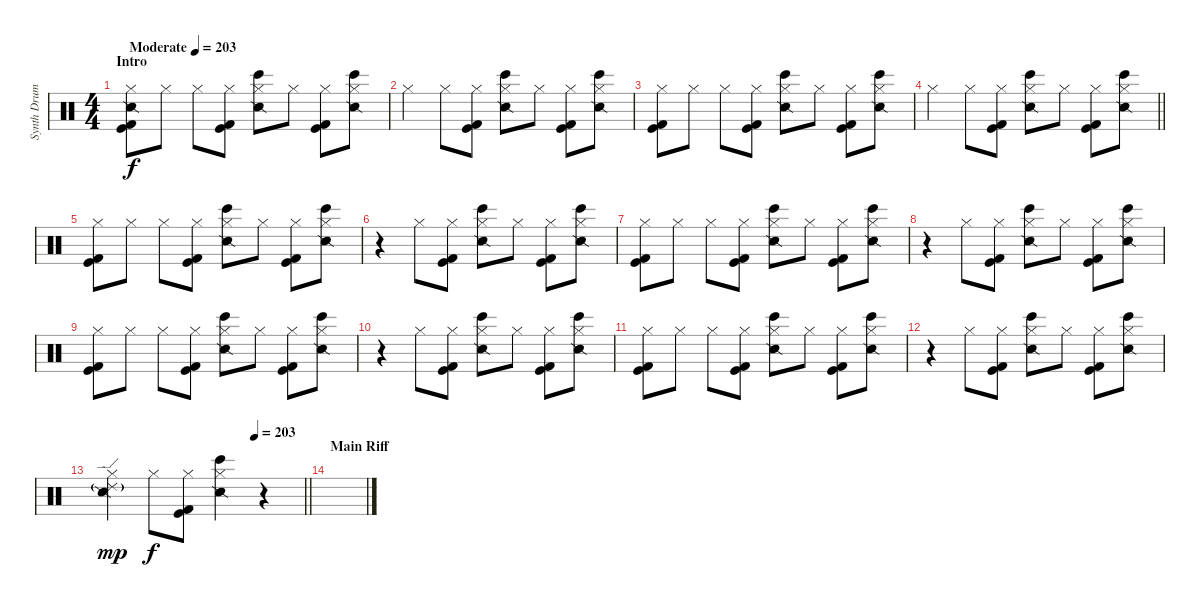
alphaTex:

\track ("Synth Drums" "Synth Drum") {instrument percussion}
\staff {score}
\articulation defaults
\ts (4 4)
\section ("" "Intro")
\tempo (203 "Moderate")
\tempo 100
\tempo (203 "Moderate")
\clef neutral
\ks c
("Hi-Hat (closed)" "Snare (side stick) 2" "Kick (hit) 2" "Kick (hit)").8{dy f} "Hi-Hat (closed)".8 "Hi-Hat (closed)".8 ("Hi-Hat (closed)" "Kick (hit) 2" "Kick (hit)").8 ("Hi-Hat (closed)" "Bongo High (hit)" "Snare (side stick) 2").8 "Hi-Hat (closed)".8 ("Hi-Hat (closed)" "Kick (hit) 2" "Kick (hit)").8 ("Hi-Hat (closed)" "Bongo High (hit)" "Snare (side stick) 2").8 |
"Hi-Hat (closed)".4 "Hi-Hat (closed)".8 ("Hi-Hat (closed)" "Kick (hit) 2" "Kick (hit)").8 ("Hi-Hat (closed)" "Bongo High (hit)" "Snare (side stick) 2").8 "Hi-Hat (closed)".8 ("Hi-Hat (closed)" "Kick (hit) 2" "Kick (hit)").8 ("Hi-Hat (closed)" "Bongo High (hit)" "Snare (side stick) 2").8 |
("Hi-Hat (closed)" "Kick (hit) 2" "Kick (hit)").8 "Hi-Hat (closed)".8 "Hi-Hat (closed)".8 ("Hi-Hat (closed)" "Kick (hit) 2" "Kick (hit)").8 ("Hi-Hat (closed)" "Bongo High (hit)" "Snare (side stick) 2").8 "Hi-Hat (closed)".8 ("Hi-Hat (closed)" "Kick (hit) 2" "Kick (hit)").8 ("Hi-Hat (closed)" "Bongo High (hit)" "Snare (side stick) 2").8 |
\barLineRight lightlight "Hi-Hat (closed)".4 "Hi-Hat (closed)".8
("Hi-Hat (closed)" "Kick (hit) 2" "Kick (hit)").8 ("Hi-Hat (closed)" "Bongo High (hit)" "Snare (side stick) 2").8 "Hi-Hat (closed)".8 ("Hi-Hat (closed)" "Kick (hit) 2" "Kick (hit)").8 ("Hi-Hat (closed)" "Bongo High (hit)" "Snare (side stick) 2").8 |
\section ("" "")
("Hi-Hat (closed)" "Kick (hit) 2" "Kick (hit)").8 "Hi-Hat (closed)".8 "Hi-Hat (closed)".8 ("Hi-Hat (closed)" "Kick (hit) 2" "Kick (hit)").8 ("Hi-Hat (closed)" "Bongo High (hit)" "Snare (side stick) 2").8 "Hi-Hat (closed)".8 ("Hi-Hat (closed)" "Kick (hit) 2" "Kick (hit)").8 ("Hi-Hat (closed)" "Bongo High (hit)" "Snare (side stick) 2").8 |
r.4 "Hi-Hat (closed)".8 ("Hi-Hat (closed)" "Kick (hit) 2" "Kick (hit)").8 ("Hi-Hat (closed)" "Bongo High (hit)" "Snare (side stick) 2").8 "Hi-Hat (closed)".8 ("Hi-Hat (closed)" "Kick (hit) 2" "Kick (hit)").8 ("Hi-Hat (closed)" "Bongo High (hit)" "Snare (side stick) 2").8 |
("Hi-Hat (closed)" "Kick (hit) 2" "Kick (hit)").8 "Hi-Hat (closed)".8 "Hi-Hat (closed)".8 ("Hi-Hat (closed)" "Kick (hit) 2" "Kick (hit)").8 ("Hi-Hat (closed)" "Bongo High (hit)" "Snare (side stick) 2").8 "Hi-Hat (closed)".8 ("Hi-Hat (closed)" "Kick (hit) 2" "Kick (hit)").8 ("Hi-Hat (closed)" "Bongo High (hit)" "Snare (side stick) 2").8 |
r.4 "Hi-Hat (closed)".8 ("Hi-Hat (closed)" "Kick (hit) 2" "Kick (hit)").8 ("Hi-Hat (closed)" "Bongo High (hit)" "Snare (side stick) 2").8 "Hi-Hat (closed)".8 ("Hi-Hat (closed)" "Kick (hit) 2" "Kick (hit)").8 ("Hi-Hat (closed)" "Bongo High (hit)" "Snare (side stick) 2").8 |
("Hi-Hat (closed)" "Kick (hit) 2" "Kick (hit)").8 "Hi-Hat (closed)".8 "Hi-Hat (closed)".8 ("Hi-Hat (closed)" "Kick (hit) 2" "Kick (hit)").8 ("Hi-Hat (closed)" "Bongo High (hit)" "Snare (side stick) 2").8 "Hi-Hat (closed)".8 ("Hi-Hat (closed)" "Kick (hit) 2" "Kick (hit)").8 ("Hi-Hat (closed)" "Bongo High (hit)" "Snare (side stick) 2").8 |
r.4 "Hi-Hat (closed)".8 ("Hi-Hat (closed)" "Kick (hit) 2" "Kick (hit)").8 ("Hi-Hat (closed)" "Bongo High (hit)" "Snare (side stick) 2").8 "Hi-Hat (closed)".8 ("Hi-Hat (closed)" "Kick (hit) 2" "Kick (hit)").8 ("Hi-Hat (closed)" "Bongo High (hit)" "Snare (side stick) 2").8 |
("Hi-Hat (closed)" "Kick (hit) 2" "Kick (hit)").8 "Hi-Hat (closed)".8 "Hi-Hat (closed)".8 ("Hi-Hat (closed)" "Kick (hit) 2" "Kick (hit)").8 ("Hi-Hat (closed)" "Bongo High (hit)" "Snare (side stick) 2").8 "Hi-Hat (closed)".8 ("Hi-Hat (closed)" "Kick (hit) 2" "Kick (hit)").8 ("Hi-Hat (closed)" "Bongo High (hit)" "Snare (side stick) 2").8 |
r.4 "Hi-Hat (closed)".8 ("Hi-Hat (closed)" "Kick (hit) 2" "Kick (hit)").8 ("Hi-Hat (closed)" "Bongo High (hit)" "Snare (side stick) 2").8 "Hi-Hat (closed)".8 ("Hi-Hat (closed)" "Kick (hit) 2" "Kick (hit)").8 ("Hi-Hat (closed)" "Bongo High (hit)" "Snare (side stick) 2").8 |
\tempo (203 0.75)
\barLineRight lightlight
("Hi-Hat (closed)" "Ride (edge) 2"{g} "Snare (side stick) 2").4{dy mp} "Hi-Hat (closed)".8{dy f} ("Hi-Hat (closed)" "Kick (hit) 2" "Kick (hit)").8 ("Hi-Hat (closed)" "Bongo High (hit)" "Snare (side stick) 2").4 r.4 |
\section ("" "Main Riff")
